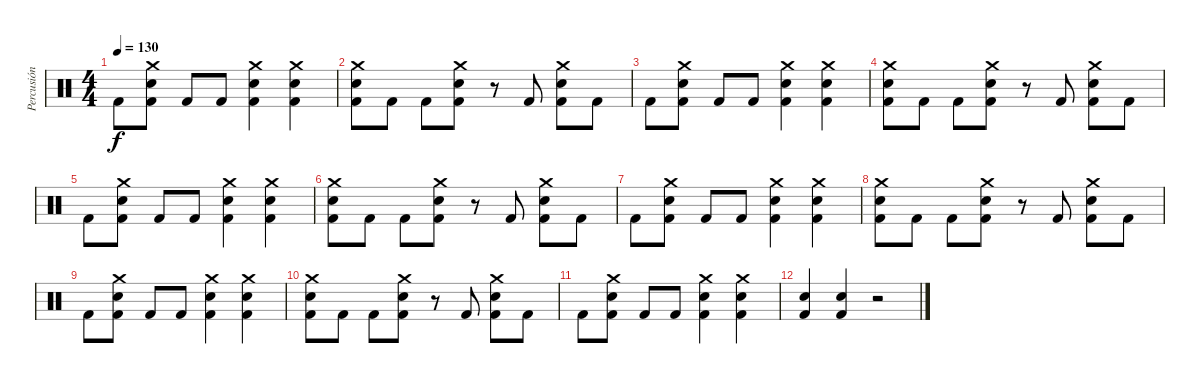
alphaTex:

\track ("Percusión" "Percusión") {instrument percussion}
\staff {score}
\articulation defaults
\ts (4 4)
\tempo 130
\clef neutral
\ks c "Kick (hit) 2".8{dy f}
("Kick (hit) 2" "Snare (hit) 2" "Crash medium (hit)").8 "Kick (hit) 2".8 "Kick (hit) 2".8 ("Kick (hit) 2" "Snare (hit) 2" "Crash medium (hit)").4 ("Kick (hit) 2" "Snare (hit) 2" "Crash medium (hit)").4 |
("Kick (hit) 2" "Snare (hit) 2" "Crash medium (hit)").8 "Kick (hit) 2".8 "Kick (hit) 2".8 ("Kick (hit) 2" "Snare (hit) 2" "Crash medium (hit)").8 r.8 "Kick (hit) 2".8 ("Kick (hit) 2" "Snare (hit) 2" "Crash medium (hit)").8 "Kick (hit) 2".8 |
"Kick (hit) 2".8 ("Kick (hit) 2" "Snare (hit) 2" "Crash medium (hit)").8 "Kick (hit) 2".8 "Kick (hit) 2".8 ("Kick (hit) 2" "Snare (hit) 2" "Crash medium (hit)").4 ("Kick (hit) 2" "Snare (hit) 2" "Crash medium (hit)").4 |
("Kick (hit) 2" "Snare (hit) 2" "Crash medium (hit)").8 "Kick (hit) 2".8 "Kick (hit) 2".8 ("Kick (hit) 2" "Snare (hit) 2" "Crash medium (hit)").8 r.8 "Kick (hit) 2".8 ("Kick (hit) 2" "Snare (hit) 2" "Crash medium (hit)").8 "Kick (hit) 2".8 |
"Kick (hit) 2".8 ("Kick (hit) 2" "Snare (hit) 2" "Crash medium (hit)").8 "Kick (hit) 2".8 "Kick (hit) 2".8 ("Kick (hit) 2" "Snare (hit) 2" "Crash medium (hit)").4 ("Kick (hit) 2" "Snare (hit) 2" "Crash medium (hit)").4 |
("Kick (hit) 2" "Snare (hit) 2" "Crash medium (hit)").8 "Kick (hit) 2".8 "Kick (hit) 2".8 ("Kick (hit) 2" "Snare (hit) 2" "Crash medium (hit)").8 r.8 "Kick (hit) 2".8 ("Kick (hit) 2" "Snare (hit) 2" "Crash medium (hit)").8 "Kick (hit) 2".8 |
"Kick (hit) 2".8 ("Kick (hit) 2" "Snare (hit) 2" "Crash medium (hit)").8 "Kick (hit) 2".8 "Kick (hit) 2".8 ("Kick (hit) 2" "Snare (hit) 2" "Crash medium (hit)").4 ("Kick (hit) 2" "Snare (hit) 2" "Crash medium (hit)").4 |
("Kick (hit) 2" "Snare (hit) 2" "Crash medium (hit)").8 "Kick (hit) 2".8 "Kick (hit) 2".8 ("Kick (hit) 2" "Snare (hit) 2" "Crash medium (hit)").8 r.8 "Kick (hit) 2".8 ("Kick (hit) 2" "Snare (hit) 2" "Crash medium (hit)").8 "Kick (hit) 2".8 |
"Kick (hit) 2".8 ("Kick (hit) 2" "Snare (hit) 2" "Crash medium (hit)").8 "Kick (hit) 2".8 "Kick (hit) 2".8 ("Kick (hit) 2" "Snare (hit) 2" "Crash medium (hit)").4 ("Kick (hit) 2" "Snare (hit) 2" "Crash medium (hit)").4 |
("Kick (hit) 2" "Snare (hit) 2" "Crash medium (hit)").8 "Kick (hit) 2".8 "Kick (hit) 2".8 ("Kick (hit) 2" "Snare (hit) 2" "Crash medium (hit)").8 r.8 "Kick (hit) 2".8 ("Kick (hit) 2" "Snare (hit) 2" "Crash medium (hit)").8 "Kick (hit) 2".8 |
"Kick (hit) 2".8 ("Kick (hit) 2" "Snare (hit) 2" "Crash medium (hit)").8 "Kick (hit) 2".8 "Kick (hit) 2".8 ("Kick (hit) 2" "Snare (hit) 2" "Crash medium (hit)").4 ("Kick (hit) 2" "Snare (hit) 2" "Crash medium (hit)").4 |
("Kick (hit) 2" "Snare (hit) 2").4 ("Kick (hit) 2" "Snare (hit) 2").4 r.2
